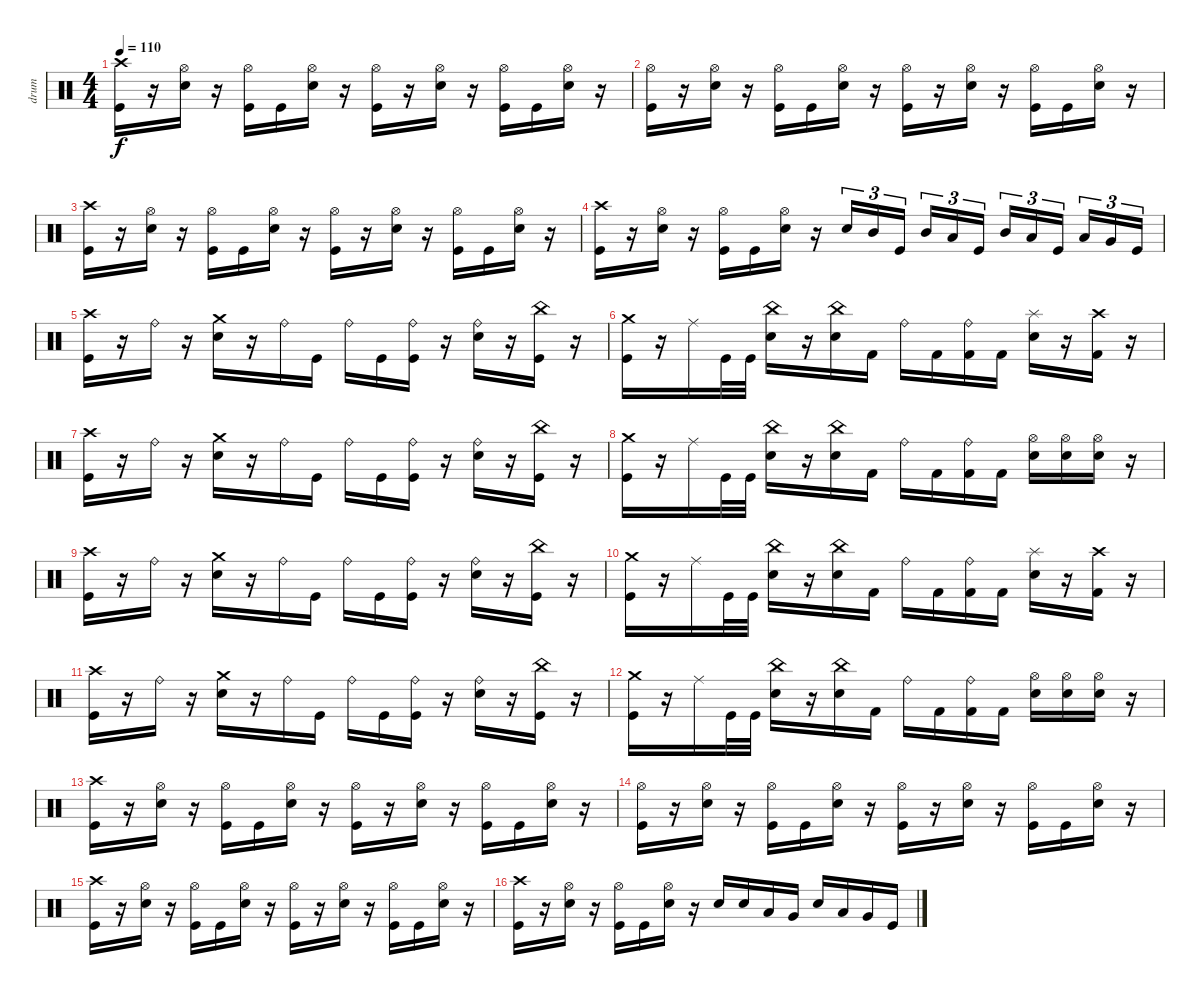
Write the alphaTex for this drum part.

\track ("drum" "drum") {instrument percussion}
\staff {score}
\articulation defaults
\ts (4 4)
\tempo 110
\clef neutral
\ks c
("Crash high (hit)" "Kick (hit)").16{dy f} r.16 ("Hi-Hat (open)" "Snare (hit) 2").16 r.16 ("Hi-Hat (open)" "Kick (hit)").16 "Kick (hit)".16 ("Hi-Hat (open)" "Snare (hit) 2").16 r.16 ("Hi-Hat (open)" "Kick (hit)").16 r.16 ("Hi-Hat (open)" "Snare (hit) 2").16 r.16 ("Hi-Hat (open)" "Kick (hit)").16 "Kick (hit)".16 ("Hi-Hat (open)" "Snare (hit) 2").16 r.16 |
("Hi-Hat (open)" "Kick (hit)").16 r.16 ("Hi-Hat (open)" "Snare (hit) 2").16 r.16 ("Hi-Hat (open)" "Kick (hit)").16 "Kick (hit)".16 ("Hi-Hat (open)" "Snare (hit) 2").16 r.16 ("Hi-Hat (open)" "Kick (hit)").16 r.16 ("Hi-Hat (open)" "Snare (hit) 2").16 r.16 ("Hi-Hat (open)" "Kick (hit)").16 "Kick (hit)".16 ("Hi-Hat (open)" "Snare (hit) 2").16 r.16 |
("Crash high (hit)" "Kick (hit)").16 r.16 ("Hi-Hat (open)" "Snare (hit) 2").16 r.16 ("Hi-Hat (open)" "Kick (hit)").16 "Kick (hit)".16 ("Hi-Hat (open)" "Snare (hit) 2").16 r.16 ("Hi-Hat (open)" "Kick (hit)").16 r.16 ("Hi-Hat (open)" "Snare (hit) 2").16 r.16 ("Hi-Hat (open)" "Kick (hit)").16 "Kick (hit)".16 ("Hi-Hat (open)" "Snare (hit) 2").16 r.16 |
("Crash high (hit)" "Kick (hit)").16 r.16 ("Hi-Hat (open)" "Snare (hit) 2").16 r.16 ("Hi-Hat (open)" "Kick (hit)").16 "Kick (hit)".16 ("Hi-Hat (open)" "Snare (hit) 2").16 r.16 "Snare (hit) 2".16{tu (3 2)} "Mid Tom (hit)".16{tu (3 2)} "Kick (hit)".16{tu (3 2)} "Mid Tom (hit)".16{tu (3 2)} "Low Tom (hit)".16{tu (3 2)} "Kick (hit)".16{tu (3 2)} "Mid Tom (hit)".16{tu (3 2)} "Low Tom (hit)".16{tu (3 2)} "Kick (hit)".16{tu (3 2)} "Low Tom (hit)".16{tu (3 2)} "Very Low Tom (hit)".16{tu (3 2)} "Kick (hit)".16{tu (3 2)} |
("Crash high (hit)" "Kick (hit)").16 r.16 "Ride (bell)".16 r.16 ("Crash medium (hit)" "Snare (hit) 2").16 r.16 "Ride (bell)".16 "Kick (hit)".16 "Ride (bell)".16 "Kick (hit)".16 ("Ride (bell)" "Kick (hit)").16 r.16 ("Ride (bell)" "Snare (hit) 2").16 r.16 ("China (hit)" "Kick (hit)").16 r.16 |
("Crash medium (hit)" "Kick (hit)").16 r.16 "Ride (middle)".16 "Kick (hit)".32 "Kick (hit)".32 ("China (hit)" "Snare (hit) 2").16 r.16 ("China (hit)" "Snare (hit) 2").16 "Kick (hit) 2".16 "Ride (bell)".16 "Kick (hit) 2".16 ("Ride (bell)" "Kick (hit) 2").16 "Kick (hit) 2".16 ("Splash (hit)" "Snare (hit) 2").16 r.16 ("Crash high (hit)" "Kick (hit) 2").16 r.16 |
("Crash high (hit)" "Kick (hit)").16 r.16 "Ride (bell)".16 r.16 ("Crash medium (hit)" "Snare (hit) 2").16 r.16 "Ride (bell)".16 "Kick (hit)".16 "Ride (bell)".16 "Kick (hit)".16 ("Ride (bell)" "Kick (hit)").16 r.16 ("Ride (bell)" "Snare (hit) 2").16 r.16 ("China (hit)" "Kick (hit)").16 r.16 |
("Crash medium (hit)" "Kick (hit)").16 r.16 "Ride (middle)".16 "Kick (hit)".32 "Kick (hit)".32 ("China (hit)" "Snare (hit) 2").16 r.16 ("China (hit)" "Snare (hit) 2").16 "Kick (hit) 2".16 "Ride (bell)".16 "Kick (hit) 2".16 ("Ride (bell)" "Kick (hit) 2").16 "Kick (hit) 2".16 ("Hi-Hat (open)" "Snare (hit) 2").16 ("Hi-Hat (open)" "Snare (hit) 2").16 ("Hi-Hat (open)" "Snare (hit) 2").16 r.16 |
("Crash high (hit)" "Kick (hit)").16 r.16 "Ride (bell)".16 r.16 ("Crash medium (hit)" "Snare (hit) 2").16 r.16 "Ride (bell)".16 "Kick (hit)".16 "Ride (bell)".16 "Kick (hit)".16 ("Ride (bell)" "Kick (hit)").16 r.16 ("Ride (bell)" "Snare (hit) 2").16 r.16 ("China (hit)" "Kick (hit)").16 r.16 |
("Crash medium (hit)" "Kick (hit)").16 r.16 "Ride (middle)".16 "Kick (hit)".32 "Kick (hit)".32 ("China (hit)" "Snare (hit) 2").16 r.16 ("China (hit)" "Snare (hit) 2").16 "Kick (hit) 2".16 "Ride (bell)".16 "Kick (hit) 2".16 ("Ride (bell)" "Kick (hit) 2").16 "Kick (hit) 2".16 ("Splash (hit)" "Snare (hit) 2").16 r.16 ("Crash high (hit)" "Kick (hit) 2").16 r.16 |
("Crash high (hit)" "Kick (hit)").16 r.16 "Ride (bell)".16 r.16 ("Crash medium (hit)" "Snare (hit) 2").16 r.16 "Ride (bell)".16 "Kick (hit)".16 "Ride (bell)".16 "Kick (hit)".16 ("Ride (bell)" "Kick (hit)").16 r.16 ("Ride (bell)" "Snare (hit) 2").16 r.16 ("China (hit)" "Kick (hit)").16 r.16 |
("Crash medium (hit)" "Kick (hit)").16 r.16 "Ride (middle)".16 "Kick (hit)".32 "Kick (hit)".32 ("China (hit)" "Snare (hit) 2").16 r.16 ("China (hit)" "Snare (hit) 2").16 "Kick (hit) 2".16 "Ride (bell)".16 "Kick (hit) 2".16 ("Ride (bell)" "Kick (hit) 2").16 "Kick (hit) 2".16 ("Hi-Hat (open)" "Snare (hit) 2").16 ("Hi-Hat (open)" "Snare (hit) 2").16 ("Hi-Hat (open)" "Snare (hit) 2").16 r.16 |
("Crash high (hit)" "Kick (hit)").16 r.16 ("Hi-Hat (open)" "Snare (hit) 2").16 r.16 ("Hi-Hat (open)" "Kick (hit)").16 "Kick (hit)".16 ("Hi-Hat (open)" "Snare (hit) 2").16 r.16 ("Hi-Hat (open)" "Kick (hit)").16 r.16 ("Hi-Hat (open)" "Snare (hit) 2").16 r.16 ("Hi-Hat (open)" "Kick (hit)").16 "Kick (hit)".16 ("Hi-Hat (open)" "Snare (hit) 2").16 r.16 |
("Hi-Hat (open)" "Kick (hit)").16 r.16 ("Hi-Hat (open)" "Snare (hit) 2").16 r.16 ("Hi-Hat (open)" "Kick (hit)").16 "Kick (hit)".16 ("Hi-Hat (open)" "Snare (hit) 2").16 r.16 ("Hi-Hat (open)" "Kick (hit)").16 r.16 ("Hi-Hat (open)" "Snare (hit) 2").16 r.16 ("Hi-Hat (open)" "Kick (hit)").16 "Kick (hit)".16 ("Hi-Hat (open)" "Snare (hit) 2").16 r.16 |
("Crash high (hit)" "Kick (hit)").16 r.16 ("Hi-Hat (open)" "Snare (hit) 2").16 r.16 ("Hi-Hat (open)" "Kick (hit)").16 "Kick (hit)".16 ("Hi-Hat (open)" "Snare (hit) 2").16 r.16 ("Hi-Hat (open)" "Kick (hit)").16 r.16 ("Hi-Hat (open)" "Snare (hit) 2").16 r.16 ("Hi-Hat (open)" "Kick (hit)").16 "Kick (hit)".16 ("Hi-Hat (open)" "Snare (hit) 2").16 r.16 |
("Crash high (hit)" "Kick (hit)").16 r.16 ("Hi-Hat (open)" "Snare (hit) 2").16 r.16 ("Hi-Hat (open)" "Kick (hit)").16 "Kick (hit)".16 ("Hi-Hat (open)" "Snare (hit) 2").16 r.16 "Snare (hit) 2".16 "Snare (hit) 2".16 "Low Tom (hit)".16 "Very Low Tom (hit)".16 "Snare (hit) 2".16 "Low Tom (hit)".16 "Very Low Tom (hit)".16 "Kick (hit)".16
